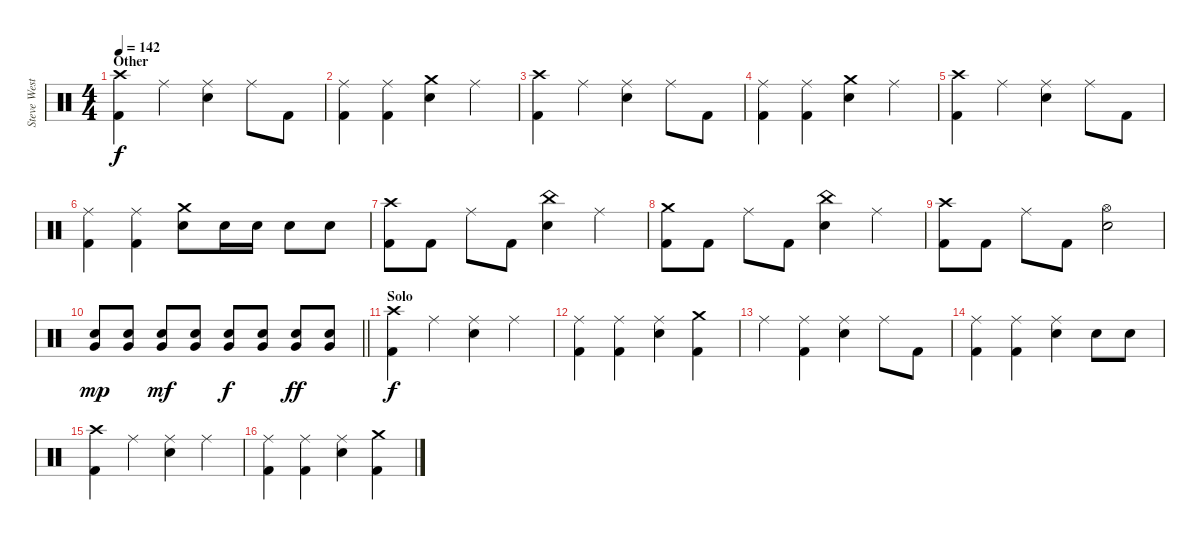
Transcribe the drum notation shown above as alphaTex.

\track ("Steve West" "Steve West") {instrument percussion}
\staff {score}
\articulation defaults
\ts (4 4)
\section ("" "Other")
\tempo 142
\clef neutral
\ks c
("Kick (hit) 2" "Crash high (hit)").4{dy f} "Ride (middle)".4 ("Electric Snare (hit)" "Ride (middle)").4 "Ride (middle)".8 "Kick (hit) 2".8 |
("Kick (hit) 2" "Ride (middle)").4 ("Kick (hit) 2" "Ride (middle)").4 ("Electric Snare (hit)" "Crash medium (hit)").4 "Ride (middle)".4 |
("Kick (hit) 2" "Crash high (hit)").4 "Ride (middle)".4 ("Electric Snare (hit)" "Ride (middle)").4 "Ride (middle)".8 "Kick (hit) 2".8 |
("Kick (hit) 2" "Ride (middle)").4 ("Kick (hit) 2" "Ride (middle)").4 ("Electric Snare (hit)" "Crash medium (hit)").4 "Ride (middle)".4 |
("Kick (hit) 2" "Crash high (hit)").4 "Ride (middle)".4 ("Electric Snare (hit)" "Ride (middle)").4 "Ride (middle)".8 "Kick (hit) 2".8 |
("Kick (hit) 2" "Ride (middle)").4 ("Kick (hit) 2" "Ride (middle)").4 ("Electric Snare (hit)" "Crash medium (hit)").8 "Electric Snare (hit)".16 "Electric Snare (hit)".16 "Electric Snare (hit)".8 "Electric Snare (hit)".8 |
("Kick (hit) 2" "Crash high (hit)").8 "Kick (hit) 2".8 "Ride (middle)".8 "Kick (hit) 2".8 ("Electric Snare (hit)" "China (hit)").4 "Ride (middle)".4 |
("Kick (hit) 2" "Crash medium (hit)").8 "Kick (hit) 2".8 "Ride (middle)".8 "Kick (hit) 2".8 ("Electric Snare (hit)" "China (hit)").4 "Ride (middle)".4 |
("Kick (hit) 2" "Crash high (hit)").8 "Kick (hit) 2".8 "Ride (middle)".8 "Kick (hit) 2".8 ("Electric Snare (hit)" "Hi-Hat (open)").2 |
\barLineRight lightlight
("Very Low Tom (hit)" "Electric Snare (hit)").8{dy mp} ("Very Low Tom (hit)" "Electric Snare (hit)").8 ("Very Low Tom (hit)" "Electric Snare (hit)").8{dy mf} ("Very Low Tom (hit)" "Electric Snare (hit)").8 ("Very Low Tom (hit)" "Electric Snare (hit)").8{dy f} ("Very Low Tom (hit)" "Electric Snare (hit)").8 ("Very Low Tom (hit)" "Electric Snare (hit)").8{dy ff} ("Very Low Tom (hit)" "Electric Snare (hit)").8 |
\section ("" "Solo")
("Kick (hit) 2" "Crash high (hit)").4{dy f} "Ride (middle)".4 ("Electric Snare (hit)" "Ride (middle)").4 "Ride (middle)".4 |
("Kick (hit) 2" "Ride (middle)").4 ("Kick (hit) 2" "Ride (middle)").4 ("Electric Snare (hit)" "Ride (middle)").4 ("Kick (hit) 2" "Crash medium (hit)").4 |
"Ride (middle)".4 ("Kick (hit) 2" "Ride (middle)").4 ("Electric Snare (hit)" "Ride (middle)").4 "Ride (middle)".8 "Kick (hit) 2".8 |
("Kick (hit) 2" "Ride (middle)").4 ("Kick (hit) 2" "Ride (middle)").4 ("Electric Snare (hit)" "Ride (middle)").4 "Electric Snare (hit)".8 "Electric Snare (hit)".8 |
("Kick (hit) 2" "Crash high (hit)").4 "Ride (middle)".4 ("Electric Snare (hit)" "Ride (middle)").4 "Ride (middle)".4 |
("Kick (hit) 2" "Ride (middle)").4 ("Kick (hit) 2" "Ride (middle)").4 ("Electric Snare (hit)" "Ride (middle)").4 ("Kick (hit) 2" "Crash medium (hit)").4
